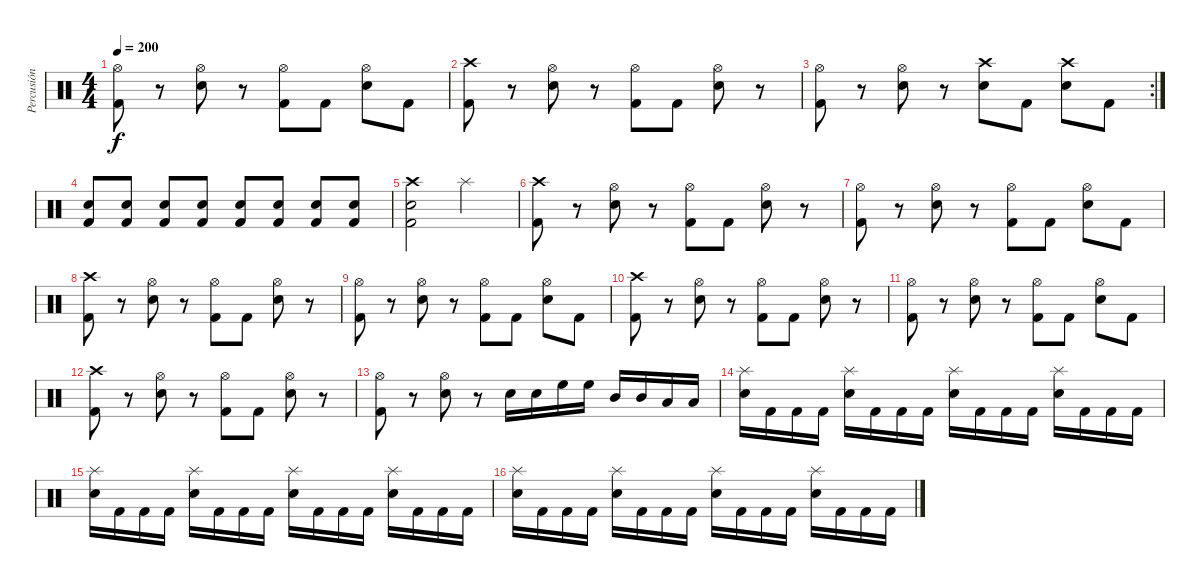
\track ("Percusión" "Percusión") {instrument percussion}
\staff {score}
\articulation defaults
\ts (4 4)
\tempo 200
\clef neutral
\ks c
("Hi-Hat (open)" "Kick (hit) 2").8{dy f} r.8 ("Hi-Hat (open)" "Electric Snare (hit)").8 r.8 ("Hi-Hat (open)" "Kick (hit) 2").8 "Kick (hit) 2".8 ("Hi-Hat (open)" "Electric Snare (hit)").8 "Kick (hit) 2".8 |
("Crash high (hit)" "Kick (hit) 2").8 r.8 ("Hi-Hat (open)" "Electric Snare (hit)").8 r.8 ("Hi-Hat (open)" "Kick (hit) 2").8 "Kick (hit) 2".8 ("Hi-Hat (open)" "Electric Snare (hit)").8 r.8 |
\rc 2
("Hi-Hat (open)" "Kick (hit) 2").8 r.8 ("Hi-Hat (open)" "Electric Snare (hit)").8 r.8 ("Crash high (hit)" "Electric Snare (hit)").8 "Kick (hit) 2".8 ("Crash high (hit)" "Electric Snare (hit)").8 "Kick (hit) 2".8 |
("Electric Snare (hit)" "Kick (hit) 2").8 ("Electric Snare (hit)" "Kick (hit) 2").8 ("Electric Snare (hit)" "Kick (hit) 2").8 ("Electric Snare (hit)" "Kick (hit) 2").8 ("Electric Snare (hit)" "Kick (hit) 2").8 ("Electric Snare (hit)" "Kick (hit) 2").8 ("Electric Snare (hit)" "Kick (hit) 2").8 ("Electric Snare (hit)" "Kick (hit) 2").8 |
("Crash high (hit)" "Electric Snare (hit)" "Kick (hit) 2").2 "Splash (hit)".2 |
("Crash high (hit)" "Kick (hit) 2").8 r.8 ("Hi-Hat (open)" "Electric Snare (hit)").8 r.8 ("Hi-Hat (open)" "Kick (hit) 2").8 "Kick (hit) 2".8 ("Hi-Hat (open)" "Electric Snare (hit)").8 r.8 |
("Hi-Hat (open)" "Kick (hit) 2").8 r.8 ("Hi-Hat (open)" "Electric Snare (hit)").8 r.8 ("Hi-Hat (open)" "Kick (hit) 2").8 "Kick (hit) 2".8 ("Hi-Hat (open)" "Electric Snare (hit)").8 "Kick (hit) 2".8 |
("Crash high (hit)" "Kick (hit) 2").8 r.8 ("Hi-Hat (open)" "Electric Snare (hit)").8 r.8 ("Hi-Hat (open)" "Kick (hit) 2").8 "Kick (hit) 2".8 ("Hi-Hat (open)" "Electric Snare (hit)").8 r.8 |
("Hi-Hat (open)" "Kick (hit) 2").8 r.8 ("Hi-Hat (open)" "Electric Snare (hit)").8 r.8 ("Hi-Hat (open)" "Kick (hit) 2").8 "Kick (hit) 2".8 ("Hi-Hat (open)" "Electric Snare (hit)").8 "Kick (hit) 2".8 |
("Crash high (hit)" "Kick (hit) 2").8 r.8 ("Hi-Hat (open)" "Electric Snare (hit)").8 r.8 ("Hi-Hat (open)" "Kick (hit) 2").8 "Kick (hit) 2".8 ("Hi-Hat (open)" "Electric Snare (hit)").8 r.8 |
("Hi-Hat (open)" "Kick (hit) 2").8 r.8 ("Hi-Hat (open)" "Electric Snare (hit)").8 r.8 ("Hi-Hat (open)" "Kick (hit) 2").8 "Kick (hit) 2".8 ("Hi-Hat (open)" "Electric Snare (hit)").8 "Kick (hit) 2".8 |
("Crash high (hit)" "Kick (hit) 2").8 r.8 ("Hi-Hat (open)" "Electric Snare (hit)").8 r.8 ("Hi-Hat (open)" "Kick (hit) 2").8 "Kick (hit) 2".8 ("Hi-Hat (open)" "Electric Snare (hit)").8 r.8 |
("Hi-Hat (open)" "Kick (hit) 2").8 r.8 ("Hi-Hat (open)" "Electric Snare (hit)").8 r.8 "Electric Snare (hit)".16 "Electric Snare (hit)".16 "High Floor Tom (hit)".16 "High Floor Tom (hit)".16 "Mid Tom (hit)".16 "Mid Tom (hit)".16 "Low Tom (hit)".16 "Low Tom (hit)".16 |
("Splash (hit)" "Electric Snare (hit)").16 "Kick (hit) 2".16 "Kick (hit) 2".16 "Kick (hit) 2".16 ("Splash (hit)" "Electric Snare (hit)").16 "Kick (hit) 2".16 "Kick (hit) 2".16 "Kick (hit) 2".16 ("Splash (hit)" "Electric Snare (hit)").16 "Kick (hit) 2".16 "Kick (hit) 2".16 "Kick (hit) 2".16 ("Splash (hit)" "Electric Snare (hit)").16 "Kick (hit) 2".16 "Kick (hit) 2".16 "Kick (hit) 2".16 |
("Splash (hit)" "Electric Snare (hit)").16 "Kick (hit) 2".16 "Kick (hit) 2".16 "Kick (hit) 2".16 ("Splash (hit)" "Electric Snare (hit)").16 "Kick (hit) 2".16 "Kick (hit) 2".16 "Kick (hit) 2".16 ("Splash (hit)" "Electric Snare (hit)").16 "Kick (hit) 2".16 "Kick (hit) 2".16 "Kick (hit) 2".16 ("Splash (hit)" "Electric Snare (hit)").16 "Kick (hit) 2".16 "Kick (hit) 2".16 "Kick (hit) 2".16 |
("Splash (hit)" "Electric Snare (hit)").16 "Kick (hit) 2".16 "Kick (hit) 2".16 "Kick (hit) 2".16 ("Splash (hit)" "Electric Snare (hit)").16 "Kick (hit) 2".16 "Kick (hit) 2".16 "Kick (hit) 2".16 ("Splash (hit)" "Electric Snare (hit)").16 "Kick (hit) 2".16 "Kick (hit) 2".16 "Kick (hit) 2".16 ("Splash (hit)" "Electric Snare (hit)").16 "Kick (hit) 2".16 "Kick (hit) 2".16 "Kick (hit) 2".16
